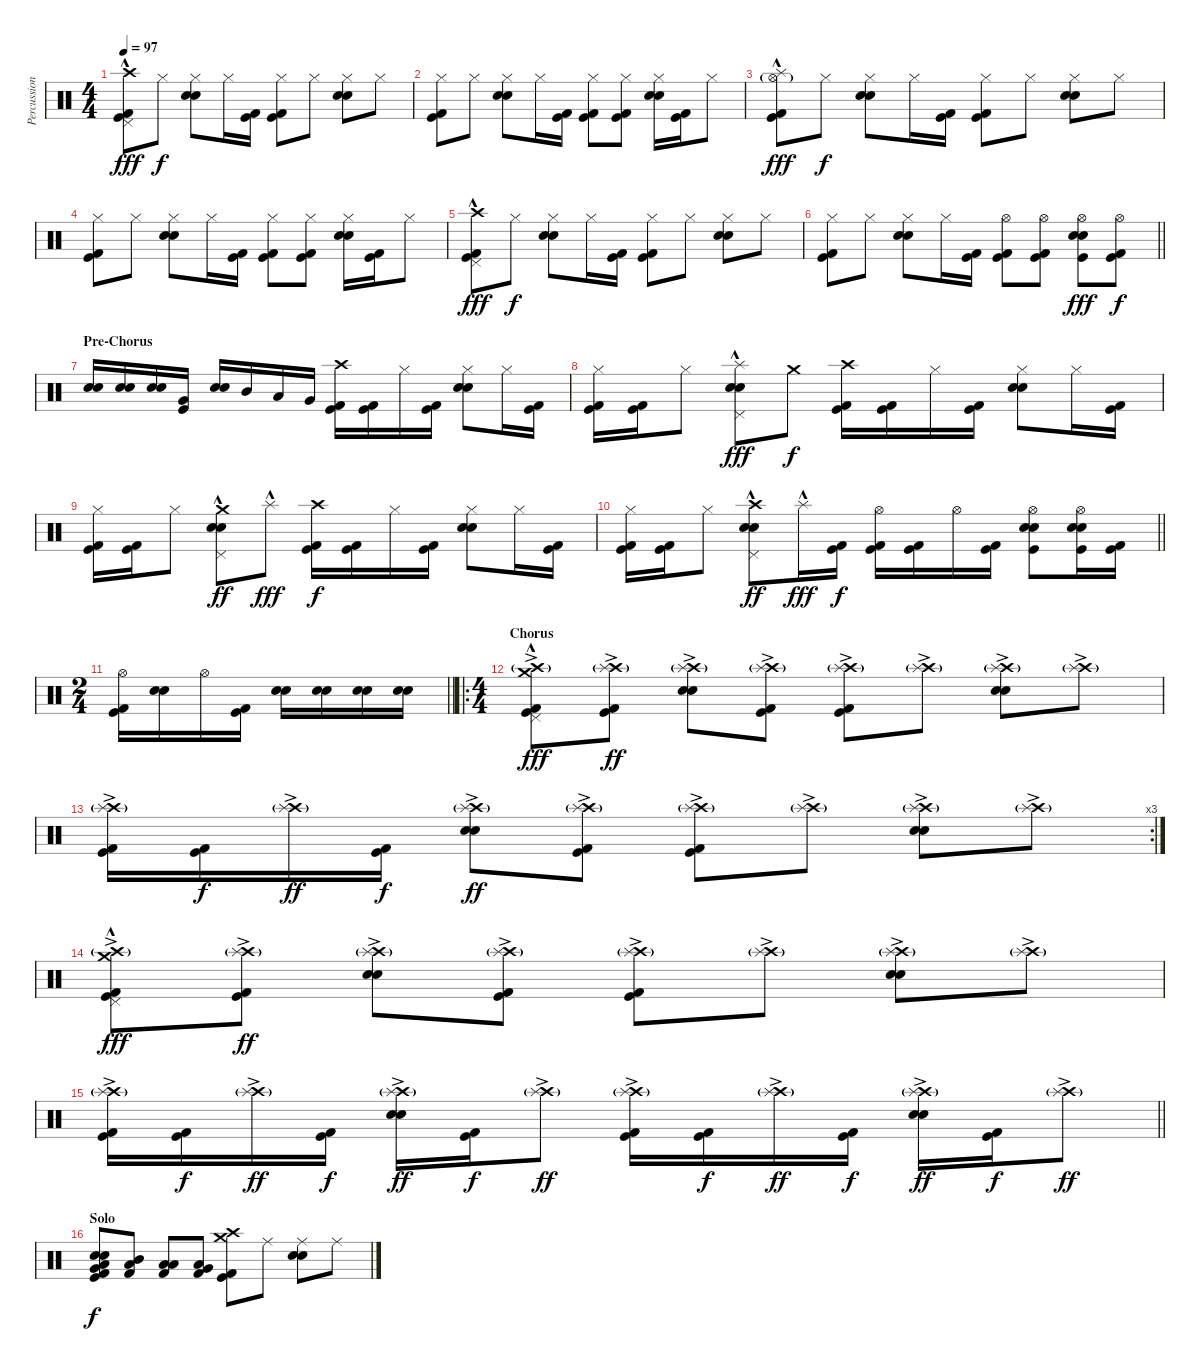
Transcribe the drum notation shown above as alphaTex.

\track ("Percussion" "Percussion") {instrument percussion}
\staff {score}
\articulation defaults
\ts (4 4)
\tempo 97
\clef neutral
\ks c
("Kick (hit) 2" "Kick (hit)" "Pedal Hi-Hat (hit)" "Crash high (hit)"{hac}).8{dy fff} "Hi-Hat (closed)".8{dy f} ("Electric Snare (hit)" "Snare (hit) 2" "Hi-Hat (closed)").8 "Hi-Hat (closed)".16 ("Kick (hit) 2" "Kick (hit)").16 ("Kick (hit) 2" "Kick (hit)" "Hi-Hat (closed)").8 "Hi-Hat (closed)".8 ("Electric Snare (hit)" "Snare (hit) 2" "Hi-Hat (closed)").8 "Hi-Hat (closed)".8 |
("Kick (hit) 2" "Kick (hit)" "Hi-Hat (closed)").8 "Hi-Hat (closed)".8 ("Electric Snare (hit)" "Snare (hit) 2" "Hi-Hat (closed)").8 "Hi-Hat (closed)".16 ("Kick (hit) 2" "Kick (hit)").16 ("Kick (hit) 2" "Kick (hit)" "Hi-Hat (closed)").8 ("Kick (hit) 2" "Kick (hit)" "Hi-Hat (closed)").8 ("Electric Snare (hit)" "Snare (hit) 2" "Hi-Hat (closed)").16 ("Kick (hit) 2" "Kick (hit)").16 "Hi-Hat (closed)".8 |
("Kick (hit) 2" "Kick (hit)" "Hi-Hat (open)"{g} "Splash (hit)"{hac}).8{dy fff} "Hi-Hat (closed)".8{dy f} ("Electric Snare (hit)" "Snare (hit) 2" "Hi-Hat (closed)").8 "Hi-Hat (closed)".16 ("Kick (hit) 2" "Kick (hit)").16 ("Kick (hit) 2" "Kick (hit)" "Hi-Hat (closed)").8 "Hi-Hat (closed)".8 ("Electric Snare (hit)" "Snare (hit) 2" "Hi-Hat (closed)").8 "Hi-Hat (closed)".8 |
("Kick (hit) 2" "Kick (hit)" "Hi-Hat (closed)").8 "Hi-Hat (closed)".8 ("Electric Snare (hit)" "Snare (hit) 2" "Hi-Hat (closed)").8 "Hi-Hat (closed)".16 ("Kick (hit) 2" "Kick (hit)").16 ("Kick (hit) 2" "Kick (hit)" "Hi-Hat (closed)").8 ("Kick (hit) 2" "Kick (hit)" "Hi-Hat (closed)").8 ("Electric Snare (hit)" "Snare (hit) 2" "Hi-Hat (closed)").16 ("Kick (hit) 2" "Kick (hit)").16 "Hi-Hat (closed)".8 |
("Kick (hit) 2" "Kick (hit)" "Pedal Hi-Hat (hit)" "Crash high (hit)"{hac}).8{dy fff} "Hi-Hat (closed)".8{dy f} ("Electric Snare (hit)" "Snare (hit) 2" "Hi-Hat (closed)").8 "Hi-Hat (closed)".16 ("Kick (hit) 2" "Kick (hit)").16 ("Kick (hit) 2" "Kick (hit)" "Hi-Hat (closed)").8 "Hi-Hat (closed)".8 ("Electric Snare (hit)" "Snare (hit) 2" "Hi-Hat (closed)").8 "Hi-Hat (closed)".8 |
\barLineRight lightlight
("Kick (hit) 2" "Kick (hit)" "Hi-Hat (closed)").8 "Hi-Hat (closed)".8 ("Electric Snare (hit)" "Snare (hit) 2" "Hi-Hat (closed)").8 "Hi-Hat (closed)".16 ("Kick (hit) 2" "Kick (hit)").16 ("Kick (hit) 2" "Kick (hit)" "Hi-Hat (open)").8 ("Kick (hit) 2" "Kick (hit)" "Hi-Hat (open)").8 ("Kick (hit)" "Electric Snare (hit)" "Snare (hit) 2" "Hi-Hat (open)").8{dy fff} ("Kick (hit) 2" "Kick (hit)" "Hi-Hat (open)").8{dy f} |
\section ("" "Pre-Chorus")
("Electric Snare (hit)" "Snare (hit) 2").16 ("Electric Snare (hit)" "Snare (hit) 2").16 ("Electric Snare (hit)" "Snare (hit) 2").16 ("Kick (hit)" "Very Low Tom (hit)").16 ("Electric Snare (hit)" "Snare (hit) 2").16 "Mid Tom (hit)".16 "Low Tom (hit)".16 "Very Low Tom (hit)".16 ("Kick (hit) 2" "Kick (hit)" "Crash high (hit)").16 ("Kick (hit) 2" "Kick (hit)").16 "Hi-Hat (closed)".16 ("Kick (hit) 2" "Kick (hit)").16 ("Electric Snare (hit)" "Snare (hit) 2" "Hi-Hat (closed)").8 "Hi-Hat (closed)".16 ("Kick (hit) 2" "Kick (hit)").16 |
("Kick (hit) 2" "Kick (hit)" "Hi-Hat (closed)").16 ("Kick (hit) 2" "Kick (hit)").16 "Hi-Hat (closed)".8 ("Electric Snare (hit)" "Snare (hit) 2" "Pedal Hi-Hat (hit)" "Splash (hit)"{hac}).8{dy fff} "Crash medium (hit)".8{dy f} ("Kick (hit) 2" "Kick (hit)" "Crash high (hit)").16 ("Kick (hit) 2" "Kick (hit)").16 "Hi-Hat (closed)".16 ("Kick (hit) 2" "Kick (hit)").16 ("Electric Snare (hit)" "Snare (hit) 2" "Hi-Hat (closed)").8 "Hi-Hat (closed)".16 ("Kick (hit) 2" "Kick (hit)").16 |
("Kick (hit) 2" "Kick (hit)" "Hi-Hat (closed)").16 ("Kick (hit) 2" "Kick (hit)").16 "Hi-Hat (closed)".8 ("Electric Snare (hit)" "Snare (hit) 2" "Pedal Hi-Hat (hit)" "Crash medium (hit)"{hac}).8{dy ff} "Splash (hit)"{hac}.8{dy fff} ("Kick (hit) 2" "Kick (hit)" "Crash high (hit)").16{dy f} ("Kick (hit) 2" "Kick (hit)").16 "Hi-Hat (closed)".16 ("Kick (hit) 2" "Kick (hit)").16 ("Electric Snare (hit)" "Snare (hit) 2" "Hi-Hat (closed)").8 "Hi-Hat (closed)".16 ("Kick (hit) 2" "Kick (hit)").16 |
\barLineRight lightlight
("Kick (hit) 2" "Kick (hit)" "Hi-Hat (closed)").16 ("Kick (hit) 2" "Kick (hit)").16 "Hi-Hat (closed)".8 ("Electric Snare (hit)" "Snare (hit) 2" "Pedal Hi-Hat (hit)" "Crash high (hit)"{hac}).8{dy ff} "Splash (hit)"{hac}.16{dy fff} ("Kick (hit) 2" "Kick (hit)").16{dy f} ("Kick (hit) 2" "Kick (hit)" "Hi-Hat (open)").16 ("Kick (hit) 2" "Kick (hit)").16 "Hi-Hat (open)".16 ("Kick (hit) 2" "Kick (hit)").16 ("Kick (hit)" "Electric Snare (hit)" "Snare (hit) 2" "Hi-Hat (open)").8 ("Kick (hit)" "Electric Snare (hit)" "Snare (hit) 2" "Hi-Hat (open)").16 ("Kick (hit) 2" "Kick (hit)").16 |
\ts (2 4)
\barLineRight lightlight
("Kick (hit) 2" "Kick (hit)" "Hi-Hat (open)").16 ("Electric Snare (hit)" "Snare (hit) 2").16 "Hi-Hat (open)".16 ("Kick (hit) 2" "Kick (hit)").16 ("Electric Snare (hit)" "Snare (hit) 2").16 ("Electric Snare (hit)" "Snare (hit) 2").16 ("Electric Snare (hit)" "Snare (hit) 2").16 ("Electric Snare (hit)" "Snare (hit) 2").16 |
\ro
\ts (4 4)
\section ("" "Chorus")
("Kick (hit) 2"{ac} "Kick (hit)" "Pedal Hi-Hat (hit)" "Crash high (hit)"{g} "Crash medium (hit)"{hac}).8{dy fff} ("Kick (hit) 2" "Kick (hit)" "Crash high (hit)"{g} "Splash (hit)"{ac}).8{dy ff} ("Electric Snare (hit)" "Snare (hit) 2" "Crash high (hit)"{g} "Splash (hit)"{ac}).8 ("Kick (hit) 2" "Kick (hit)" "Crash high (hit)"{g} "Splash (hit)"{ac}).8 ("Kick (hit) 2" "Kick (hit)" "Crash high (hit)"{g} "Splash (hit)"{ac}).8 ("Crash high (hit)"{g} "Splash (hit)"{ac}).8 ("Electric Snare (hit)" "Snare (hit) 2" "Crash high (hit)"{g} "Splash (hit)"{ac}).8 ("Crash high (hit)"{g} "Splash (hit)"{ac}).8 |
\rc 3
("Kick (hit) 2" "Kick (hit)" "Crash high (hit)"{g} "Splash (hit)"{ac}).16 ("Kick (hit) 2" "Kick (hit)").16{dy f} ("Crash high (hit)"{g} "Splash (hit)"{ac}).16{dy ff} ("Kick (hit) 2" "Kick (hit)").16{dy f} ("Electric Snare (hit)" "Snare (hit) 2" "Crash high (hit)"{g} "Splash (hit)"{ac}).8{dy ff} ("Kick (hit) 2" "Kick (hit)" "Crash high (hit)"{g} "Splash (hit)"{ac}).8 ("Kick (hit) 2" "Kick (hit)" "Crash high (hit)"{g} "Splash (hit)"{ac}).8 ("Crash high (hit)"{g} "Splash (hit)"{ac}).8 ("Electric Snare (hit)" "Snare (hit) 2" "Crash high (hit)"{g} "Splash (hit)"{ac}).8 ("Crash high (hit)"{g} "Splash (hit)"{ac}).8 |
("Kick (hit) 2"{ac} "Kick (hit)" "Pedal Hi-Hat (hit)" "Crash high (hit)"{g} "Crash medium (hit)"{hac}).8{dy fff} ("Kick (hit) 2" "Kick (hit)" "Crash high (hit)"{g} "Splash (hit)"{ac}).8{dy ff} ("Electric Snare (hit)" "Snare (hit) 2" "Crash high (hit)"{g} "Splash (hit)"{ac}).8 ("Kick (hit) 2" "Kick (hit)" "Crash high (hit)"{g} "Splash (hit)"{ac}).8 ("Kick (hit) 2" "Kick (hit)" "Crash high (hit)"{g} "Splash (hit)"{ac}).8 ("Crash high (hit)"{g} "Splash (hit)"{ac}).8 ("Electric Snare (hit)" "Snare (hit) 2" "Crash high (hit)"{g} "Splash (hit)"{ac}).8 ("Crash high (hit)"{g} "Splash (hit)"{ac}).8 |
\barLineRight lightlight
("Kick (hit) 2" "Kick (hit)" "Crash high (hit)"{g} "Splash (hit)"{ac}).16 ("Kick (hit) 2" "Kick (hit)").16{dy f} ("Crash high (hit)"{g} "Splash (hit)"{ac}).16{dy ff} ("Kick (hit) 2" "Kick (hit)").16{dy f} ("Electric Snare (hit)" "Snare (hit) 2" "Crash high (hit)"{g} "Splash (hit)"{ac}).16{dy ff} ("Kick (hit) 2" "Kick (hit)").16{dy f} ("Crash high (hit)"{g} "Splash (hit)"{ac}).8{dy ff} ("Kick (hit) 2" "Kick (hit)" "Crash high (hit)"{g} "Splash (hit)"{ac}).16 ("Kick (hit) 2" "Kick (hit)").16{dy f} ("Crash high (hit)"{g} "Splash (hit)"{ac}).16{dy ff} ("Kick (hit) 2" "Kick (hit)").16{dy f} ("Electric Snare (hit)" "Snare (hit) 2" "Crash high (hit)"{g} "Splash (hit)"{ac}).16{dy ff} ("Kick (hit) 2" "Kick (hit)").16{dy f} ("Crash high (hit)"{g} "Splash (hit)"{ac}).8{dy ff} |
\section ("" "Solo")
("Kick (hit)" "Snare (hit) 2" "Electric Snare (hit)" "Very Low Tom (hit)" "Low Floor Tom (hit)" "Kick (hit) 2").8{dy f} ("Kick (hit) 2" "Mid Tom (hit)" "Low Floor Tom (hit)").8 ("Kick (hit) 2" "Low Tom (hit)" "Low Floor Tom (hit)").8 ("Kick (hit) 2" "Very Low Tom (hit)" "Low Floor Tom (hit)").8 ("Kick (hit) 2" "Kick (hit)" "Crash medium (hit)" "Crash high (hit)").8 "Ride (middle)".8 ("Electric Snare (hit)" "Snare (hit) 2" "Ride (middle)").8 "Ride (middle)".8
